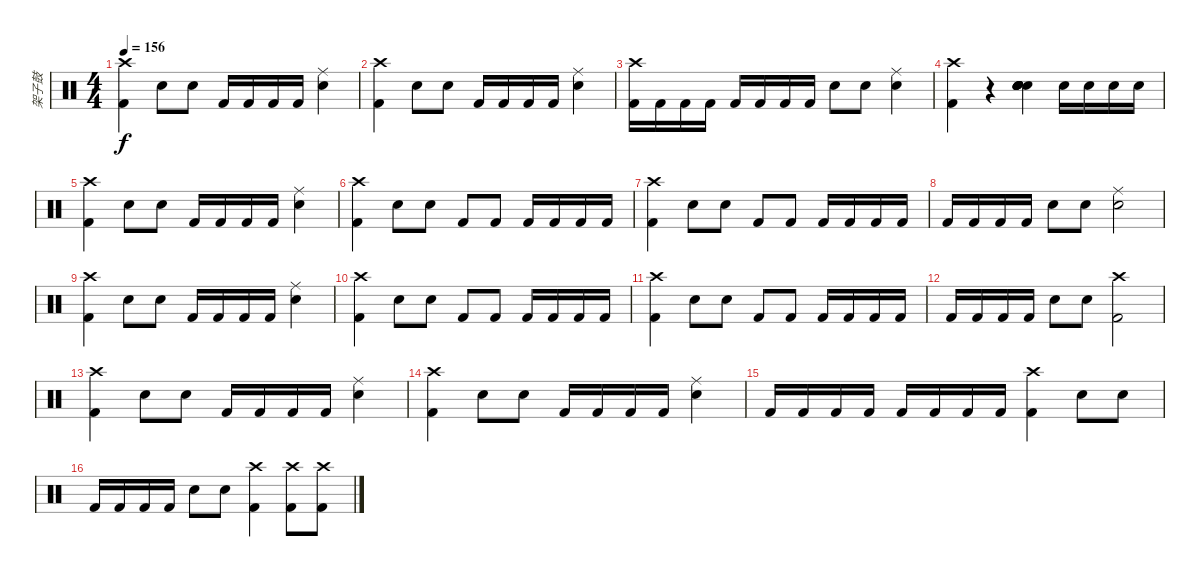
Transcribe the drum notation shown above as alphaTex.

\track ("架子鼓" "架子鼓") {instrument percussion}
\staff {score}
\articulation defaults
\ts (4 4)
\tempo 156
\clef neutral
\ks c
("Kick (hit) 2" "Crash high (hit)").4{dy f} "Snare (hit) 2".8 "Snare (hit) 2".8 "Kick (hit) 2".16 "Kick (hit) 2".16 "Kick (hit) 2".16 "Kick (hit) 2".16 ("Electric Snare (hit)" "Ride (middle)").4 |
("Kick (hit) 2" "Crash high (hit)").4 "Snare (hit) 2".8 "Snare (hit) 2".8 "Kick (hit) 2".16 "Kick (hit) 2".16 "Kick (hit) 2".16 "Kick (hit) 2".16 ("Electric Snare (hit)" "Ride (middle)").4 |
("Kick (hit) 2" "Crash high (hit)").16 "Kick (hit) 2".16 "Kick (hit) 2".16 "Kick (hit) 2".16 "Kick (hit) 2".16 "Kick (hit) 2".16 "Kick (hit) 2".16 "Kick (hit) 2".16 "Snare (hit) 2".8 "Snare (hit) 2".8 ("Electric Snare (hit)" "Ride (middle)").4 |
("Kick (hit) 2" "Crash high (hit)").4 r.4 ("Snare (hit) 2" "Snare (hit) 2" "Snare (hit) 2" "Snare (hit) 2" "Snare (hit) 2" "Snare (hit) 2").4{bd 480} "Electric Snare (hit)".16 "Electric Snare (hit)".16 "Electric Snare (hit)".16 "Electric Snare (hit)".16 |
("Kick (hit) 2" "Crash high (hit)").4 "Snare (hit) 2".8 "Snare (hit) 2".8 "Kick (hit) 2".16 "Kick (hit) 2".16 "Kick (hit) 2".16 "Kick (hit) 2".16 ("Electric Snare (hit)" "Ride (middle)").4 |
("Kick (hit) 2" "Crash high (hit)").4 "Snare (hit) 2".8 "Snare (hit) 2".8 "Kick (hit) 2".8 "Kick (hit) 2".8 "Kick (hit) 2".16 "Kick (hit) 2".16 "Kick (hit) 2".16 "Kick (hit) 2".16 |
("Kick (hit) 2" "Crash high (hit)").4 "Snare (hit) 2".8 "Snare (hit) 2".8 "Kick (hit) 2".8 "Kick (hit) 2".8 "Kick (hit) 2".16 "Kick (hit) 2".16 "Kick (hit) 2".16 "Kick (hit) 2".16 |
"Kick (hit) 2".16 "Kick (hit) 2".16 "Kick (hit) 2".16 "Kick (hit) 2".16 "Snare (hit) 2".8 "Snare (hit) 2".8 ("Electric Snare (hit)" "Ride (middle)").2 |
("Kick (hit) 2" "Crash high (hit)").4 "Snare (hit) 2".8 "Snare (hit) 2".8 "Kick (hit) 2".16 "Kick (hit) 2".16 "Kick (hit) 2".16 "Kick (hit) 2".16 ("Electric Snare (hit)" "Ride (middle)").4 |
("Kick (hit) 2" "Crash high (hit)").4 "Snare (hit) 2".8 "Snare (hit) 2".8 "Kick (hit) 2".8 "Kick (hit) 2".8 "Kick (hit) 2".16 "Kick (hit) 2".16 "Kick (hit) 2".16 "Kick (hit) 2".16 |
("Kick (hit) 2" "Crash high (hit)").4 "Snare (hit) 2".8 "Snare (hit) 2".8 "Kick (hit) 2".8 "Kick (hit) 2".8 "Kick (hit) 2".16 "Kick (hit) 2".16 "Kick (hit) 2".16 "Kick (hit) 2".16 |
"Kick (hit) 2".16 "Kick (hit) 2".16 "Kick (hit) 2".16 "Kick (hit) 2".16 "Snare (hit) 2".8 "Snare (hit) 2".8 ("Kick (hit) 2" "Crash high (hit)").2 |
("Kick (hit) 2" "Crash high (hit)").4 "Snare (hit) 2".8 "Snare (hit) 2".8 "Kick (hit) 2".16 "Kick (hit) 2".16 "Kick (hit) 2".16 "Kick (hit) 2".16 ("Electric Snare (hit)" "Ride (middle)").4 |
("Kick (hit) 2" "Crash high (hit)").4 "Snare (hit) 2".8 "Snare (hit) 2".8 "Kick (hit) 2".16 "Kick (hit) 2".16 "Kick (hit) 2".16 "Kick (hit) 2".16 ("Electric Snare (hit)" "Ride (middle)").4 |
"Kick (hit) 2".16 "Kick (hit) 2".16 "Kick (hit) 2".16 "Kick (hit) 2".16 "Kick (hit) 2".16 "Kick (hit) 2".16 "Kick (hit) 2".16 "Kick (hit) 2".16 ("Kick (hit) 2" "Crash high (hit)").4 "Snare (hit) 2".8 "Snare (hit) 2".8 |
"Kick (hit) 2".16 "Kick (hit) 2".16 "Kick (hit) 2".16 "Kick (hit) 2".16 "Snare (hit) 2".8 "Snare (hit) 2".8 ("Kick (hit) 2" "Crash high (hit)").4 ("Kick (hit) 2" "Crash high (hit)").8 ("Kick (hit) 2" "Crash high (hit)").8
